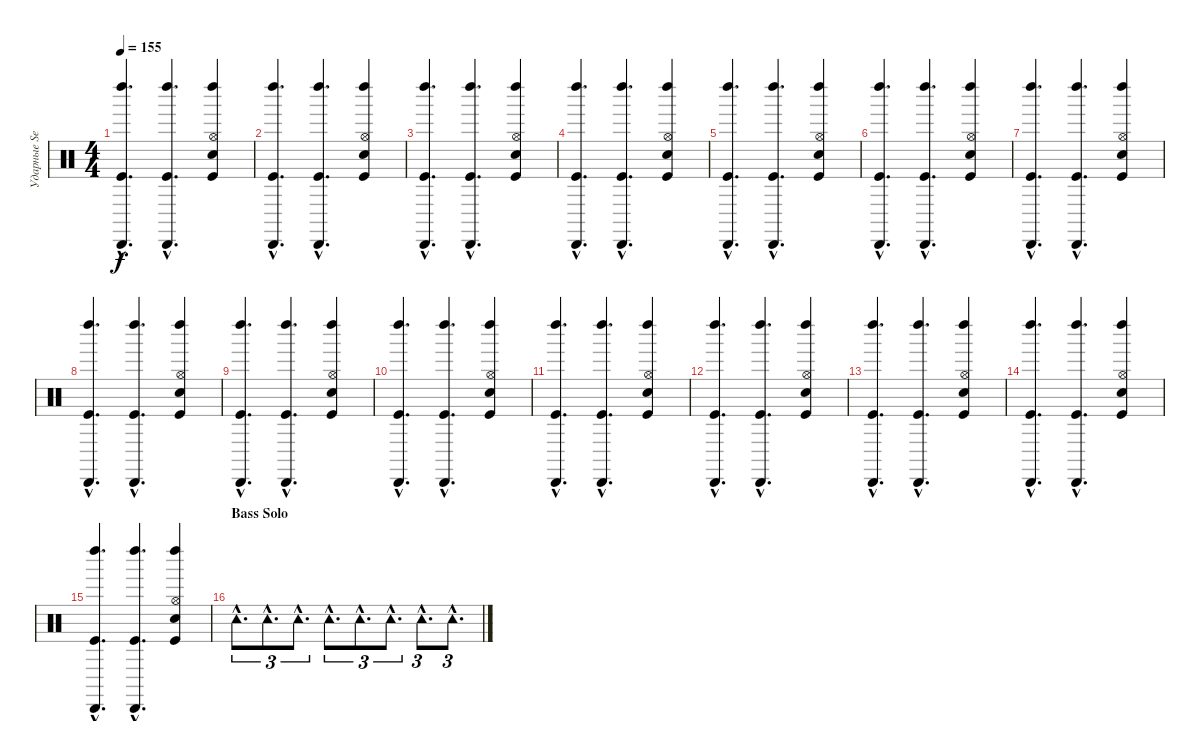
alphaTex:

\track ("Ударные Serge Petrone" "Ударные Se") {instrument percussion}
\staff {score}
\articulation defaults
\ts (4 4)
\tempo 155
\clef neutral
\ks c
("Cabasa (hit)"{hac} "Kick (hit)"{hac} "Left Maraca (hit)"{hac}).4{d dy f} ("Cabasa (hit)"{hac} "Kick (hit)"{hac} "Left Maraca (hit)"{hac}).4{d} ("Hi-Hat (open)" "Hand Clap (hit)" "Kick (hit)" "Left Maraca (hit)").4 |
("Cabasa (hit)"{hac} "Kick (hit)"{hac} "Left Maraca (hit)"{hac}).4{d} ("Cabasa (hit)"{hac} "Kick (hit)"{hac} "Left Maraca (hit)"{hac}).4{d} ("Hi-Hat (open)" "Hand Clap (hit)" "Kick (hit)" "Left Maraca (hit)").4 |
("Cabasa (hit)"{hac} "Kick (hit)"{hac} "Left Maraca (hit)"{hac}).4{d} ("Cabasa (hit)"{hac} "Kick (hit)"{hac} "Left Maraca (hit)"{hac}).4{d} ("Hi-Hat (open)" "Hand Clap (hit)" "Kick (hit)" "Left Maraca (hit)").4 |
("Cabasa (hit)"{hac} "Kick (hit)"{hac} "Left Maraca (hit)"{hac}).4{d} ("Cabasa (hit)"{hac} "Kick (hit)"{hac} "Left Maraca (hit)"{hac}).4{d} ("Hi-Hat (open)" "Hand Clap (hit)" "Kick (hit)" "Left Maraca (hit)").4 |
("Cabasa (hit)"{hac} "Kick (hit)"{hac} "Left Maraca (hit)"{hac}).4{d} ("Cabasa (hit)"{hac} "Kick (hit)"{hac} "Left Maraca (hit)"{hac}).4{d} ("Hi-Hat (open)" "Hand Clap (hit)" "Kick (hit)" "Left Maraca (hit)").4 |
("Cabasa (hit)"{hac} "Kick (hit)"{hac} "Left Maraca (hit)"{hac}).4{d} ("Cabasa (hit)"{hac} "Kick (hit)"{hac} "Left Maraca (hit)"{hac}).4{d} ("Hi-Hat (open)" "Hand Clap (hit)" "Kick (hit)" "Left Maraca (hit)").4 |
("Cabasa (hit)"{hac} "Kick (hit)"{hac} "Left Maraca (hit)"{hac}).4{d} ("Cabasa (hit)"{hac} "Kick (hit)"{hac} "Left Maraca (hit)"{hac}).4{d} ("Hi-Hat (open)" "Hand Clap (hit)" "Kick (hit)" "Left Maraca (hit)").4 |
("Cabasa (hit)"{hac} "Kick (hit)"{hac} "Left Maraca (hit)"{hac}).4{d} ("Cabasa (hit)"{hac} "Kick (hit)"{hac} "Left Maraca (hit)"{hac}).4{d} ("Hi-Hat (open)" "Hand Clap (hit)" "Kick (hit)" "Left Maraca (hit)").4 |
("Cabasa (hit)"{hac} "Kick (hit)"{hac} "Left Maraca (hit)"{hac}).4{d} ("Cabasa (hit)"{hac} "Kick (hit)"{hac} "Left Maraca (hit)"{hac}).4{d} ("Hi-Hat (open)" "Hand Clap (hit)" "Kick (hit)" "Left Maraca (hit)").4 |
("Cabasa (hit)"{hac} "Kick (hit)"{hac} "Left Maraca (hit)"{hac}).4{d} ("Cabasa (hit)"{hac} "Kick (hit)"{hac} "Left Maraca (hit)"{hac}).4{d} ("Hi-Hat (open)" "Hand Clap (hit)" "Kick (hit)" "Left Maraca (hit)").4 |
("Cabasa (hit)"{hac} "Kick (hit)"{hac} "Left Maraca (hit)"{hac}).4{d} ("Cabasa (hit)"{hac} "Kick (hit)"{hac} "Left Maraca (hit)"{hac}).4{d} ("Hi-Hat (open)" "Hand Clap (hit)" "Kick (hit)" "Left Maraca (hit)").4 |
("Cabasa (hit)"{hac} "Kick (hit)"{hac} "Left Maraca (hit)"{hac}).4{d} ("Cabasa (hit)"{hac} "Kick (hit)"{hac} "Left Maraca (hit)"{hac}).4{d} ("Hi-Hat (open)" "Hand Clap (hit)" "Kick (hit)" "Left Maraca (hit)").4 |
("Cabasa (hit)"{hac} "Kick (hit)"{hac} "Left Maraca (hit)"{hac}).4{d} ("Cabasa (hit)"{hac} "Kick (hit)"{hac} "Left Maraca (hit)"{hac}).4{d} ("Hi-Hat (open)" "Hand Clap (hit)" "Kick (hit)" "Left Maraca (hit)").4 |
("Cabasa (hit)"{hac} "Kick (hit)"{hac} "Left Maraca (hit)"{hac}).4{d} ("Cabasa (hit)"{hac} "Kick (hit)"{hac} "Left Maraca (hit)"{hac}).4{d} ("Hi-Hat (open)" "Hand Clap (hit)" "Kick (hit)" "Left Maraca (hit)").4 |
("Cabasa (hit)"{hac} "Kick (hit)"{hac} "Left Maraca (hit)"{hac}).4{d} ("Cabasa (hit)"{hac} "Kick (hit)"{hac} "Left Maraca (hit)"{hac}).4{d} ("Hi-Hat (open)" "Hand Clap (hit)" "Kick (hit)" "Left Maraca (hit)").4 |
\section ("" "Bass Solo")
"Tambourine (hit)"{hac}.8{d tu (3 2) volume 8} "Tambourine (hit)"{hac}.8{d tu (3 2)} "Tambourine (hit)"{hac}.8{d tu (3 2)} "Tambourine (hit)"{hac}.8{d tu (3 2)} "Tambourine (hit)"{hac}.8{d tu (3 2)} "Tambourine (hit)"{hac}.8{d tu (3 2)} "Tambourine (hit)"{hac}.8{d tu (3 2)} "Tambourine (hit)"{hac}.8{d tu (3 2)}
